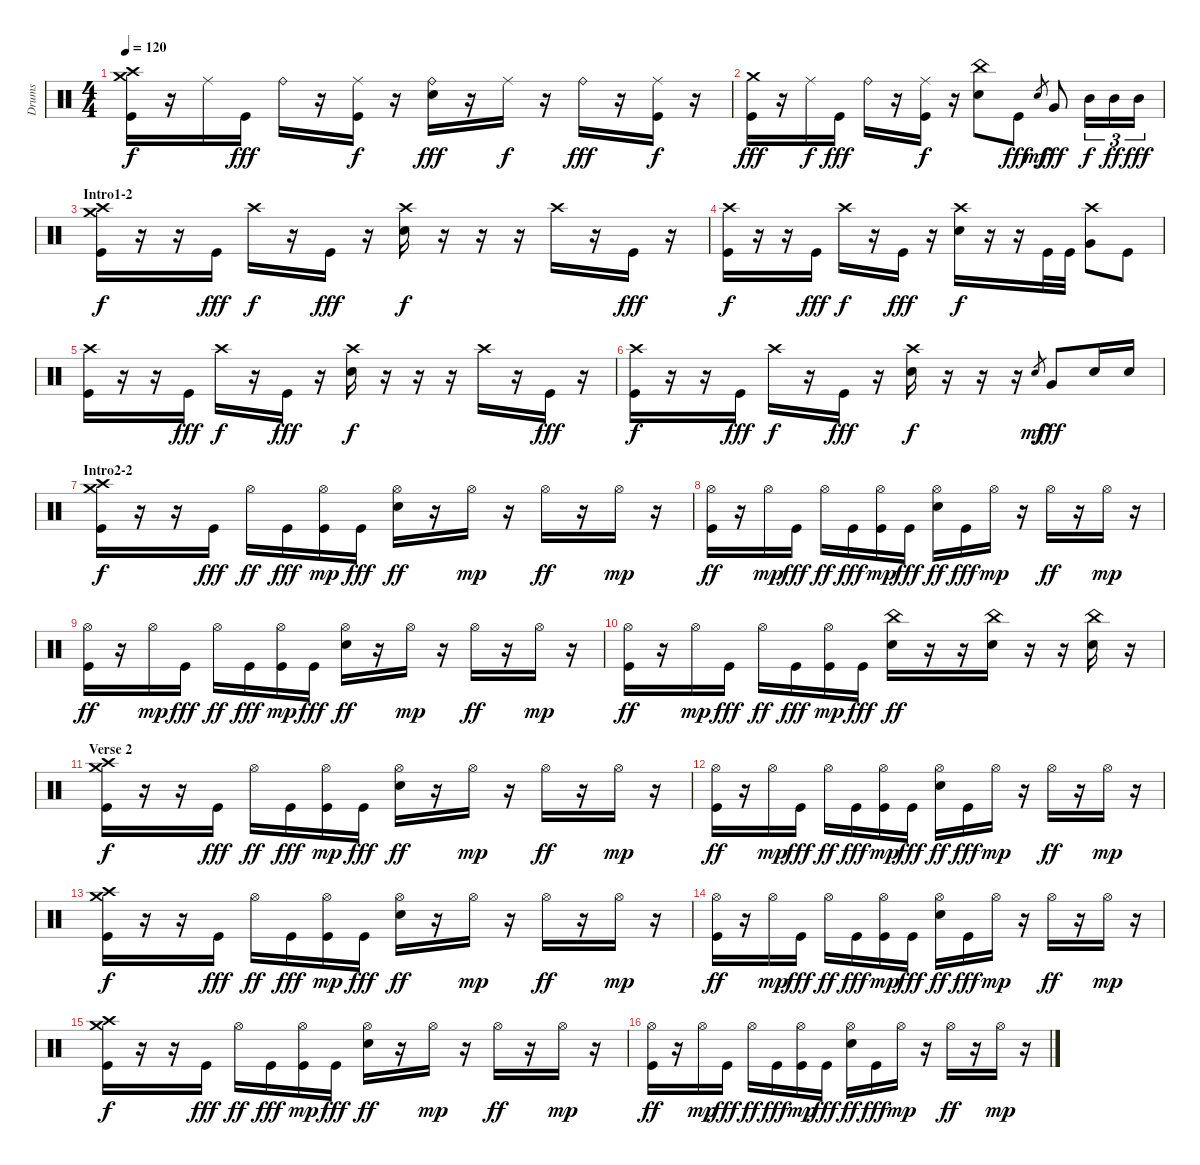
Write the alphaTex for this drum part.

\track ("Drums" "Drums") {instrument percussion}
\staff {score}
\articulation defaults
\ts (4 4)
\tempo 120
\clef neutral
\ks c
("Crash high (hit)" "Crash medium (hit)" "Kick (hit)").16{dy f} r.16 "Ride (middle)".16 "Kick (hit)".16{dy fff} "Ride (bell)".16 r.16 ("Ride (middle)" "Kick (hit)").16{dy f} r.16 ("Ride (bell)" "Snare (hit) 2").16{dy fff} r.16 "Ride (middle)".16{dy f} r.16 "Ride (bell)".16{dy fff} r.16 ("Ride (middle)" "Kick (hit)").16{dy f} r.16 |
("Crash medium (hit)" "Kick (hit)").16{dy fff} r.16 "Ride (middle)".16{dy f} "Kick (hit)".16{dy fff} "Ride (bell)".16 r.16 ("Ride (middle)" "Kick (hit)").16{dy f} r.16 ("China (hit)" "Snare (hit) 2").8 "Kick (hit)".8{dy fff} "Snare (hit)".8{gr dy mf} "Very Low Tom (hit)".8{dy fff} "Mid Tom (hit)".16{tu (3 2) dy f} "Mid Tom (hit)".16{tu (3 2) dy ff} "Mid Tom (hit)".16{tu (3 2) dy fff} |
\section ("" "Intro1-2")
("Crash high (hit)" "Crash medium (hit)" "Kick (hit)").16{dy f} r.16 r.16 "Kick (hit)".16{dy fff} "Crash high (hit)".16{dy f} r.16 "Kick (hit)".16{dy fff} r.16 ("Crash high (hit)" "Snare (hit) 2").16{dy f} r.16 r.16 r.16 "Crash high (hit)".16 r.16 "Kick (hit)".16{dy fff} r.16 |
("Crash high (hit)" "Kick (hit)").16{dy f} r.16 r.16 "Kick (hit)".16{dy fff} "Crash high (hit)".16{dy f} r.16 "Kick (hit)".16{dy fff} r.16 ("Crash high (hit)" "Snare (hit) 2").16{dy f} r.16 r.16 "Kick (hit)".32 "Kick (hit)".32 ("Crash high (hit)" "Very Low Tom (hit)").8 "Kick (hit)".8 |
("Crash high (hit)" "Kick (hit)").16 r.16 r.16 "Kick (hit)".16{dy fff} "Crash high (hit)".16{dy f} r.16 "Kick (hit)".16{dy fff} r.16 ("Crash high (hit)" "Snare (hit) 2").16{dy f} r.16 r.16 r.16 "Crash high (hit)".16 r.16 "Kick (hit)".16{dy fff} r.16 |
("Crash high (hit)" "Kick (hit)").16{dy f} r.16 r.16 "Kick (hit)".16{dy fff} "Crash high (hit)".16{dy f} r.16 "Kick (hit)".16{dy fff} r.16 ("Crash high (hit)" "Snare (hit) 2").16{dy f} r.16 r.16 r.16 "Snare (hit)".8{gr dy mf} "Very Low Tom (hit)".8{dy fff} "Snare (hit) 2".16 "Snare (hit) 2".16 |
\section ("" "Intro2-2")
("Crash high (hit)" "Crash medium (hit)" "Kick (hit)").16{dy f} r.16 r.16 "Kick (hit)".16{dy fff} "Hi-Hat (open)".16{dy ff} "Kick (hit)".16{dy fff} ("Hi-Hat (open)" "Kick (hit)").16{dy mp} "Kick (hit)".16{dy fff} ("Hi-Hat (open)" "Snare (hit) 2").16{dy ff} r.16 "Hi-Hat (open)".16{dy mp} r.16 "Hi-Hat (open)".16{dy ff} r.16 "Hi-Hat (open)".16{dy mp} r.16 |
("Hi-Hat (open)" "Kick (hit)").16{dy ff} r.16 "Hi-Hat (open)".16{dy mp} "Kick (hit)".16{dy fff} "Hi-Hat (open)".16{dy ff} "Kick (hit)".16{dy fff} ("Hi-Hat (open)" "Kick (hit)").16{dy mp} "Kick (hit)".16{dy fff} ("Hi-Hat (open)" "Snare (hit) 2").16{dy ff} "Kick (hit)".16{dy fff} "Hi-Hat (open)".16{dy mp} r.16 "Hi-Hat (open)".16{dy ff} r.16 "Hi-Hat (open)".16{dy mp} r.16 |
("Hi-Hat (open)" "Kick (hit)").16{dy ff} r.16 "Hi-Hat (open)".16{dy mp} "Kick (hit)".16{dy fff} "Hi-Hat (open)".16{dy ff} "Kick (hit)".16{dy fff} ("Hi-Hat (open)" "Kick (hit)").16{dy mp} "Kick (hit)".16{dy fff} ("Hi-Hat (open)" "Snare (hit) 2").16{dy ff} r.16 "Hi-Hat (open)".16{dy mp} r.16 "Hi-Hat (open)".16{dy ff} r.16 "Hi-Hat (open)".16{dy mp} r.16 |
("Hi-Hat (open)" "Kick (hit)").16{dy ff} r.16 "Hi-Hat (open)".16{dy mp} "Kick (hit)".16{dy fff} "Hi-Hat (open)".16{dy ff} "Kick (hit)".16{dy fff} ("Hi-Hat (open)" "Kick (hit)").16{dy mp} "Kick (hit)".16{dy fff} ("China (hit)" "Snare (hit) 2").16{dy ff} r.16 r.16 ("China (hit)" "Snare (hit) 2").16 r.16 r.16 ("China (hit)" "Snare (hit) 2").16 r.16 |
\section ("" "Verse 2")
("Crash high (hit)" "Crash medium (hit)" "Kick (hit)").16{dy f} r.16 r.16 "Kick (hit)".16{dy fff} "Hi-Hat (open)".16{dy ff} "Kick (hit)".16{dy fff} ("Hi-Hat (open)" "Kick (hit)").16{dy mp} "Kick (hit)".16{dy fff} ("Hi-Hat (open)" "Snare (hit) 2").16{dy ff} r.16 "Hi-Hat (open)".16{dy mp} r.16 "Hi-Hat (open)".16{dy ff} r.16 "Hi-Hat (open)".16{dy mp} r.16 |
("Hi-Hat (open)" "Kick (hit)").16{dy ff} r.16 "Hi-Hat (open)".16{dy mp} "Kick (hit)".16{dy fff} "Hi-Hat (open)".16{dy ff} "Kick (hit)".16{dy fff} ("Hi-Hat (open)" "Kick (hit)").16{dy mp} "Kick (hit)".16{dy fff} ("Hi-Hat (open)" "Snare (hit) 2").16{dy ff} "Kick (hit)".16{dy fff} "Hi-Hat (open)".16{dy mp} r.16 "Hi-Hat (open)".16{dy ff} r.16 "Hi-Hat (open)".16{dy mp} r.16 |
("Crash high (hit)" "Crash medium (hit)" "Kick (hit)").16{dy f} r.16 r.16 "Kick (hit)".16{dy fff} "Hi-Hat (open)".16{dy ff} "Kick (hit)".16{dy fff} ("Hi-Hat (open)" "Kick (hit)").16{dy mp} "Kick (hit)".16{dy fff} ("Hi-Hat (open)" "Snare (hit) 2").16{dy ff} r.16 "Hi-Hat (open)".16{dy mp} r.16 "Hi-Hat (open)".16{dy ff} r.16 "Hi-Hat (open)".16{dy mp} r.16 |
("Hi-Hat (open)" "Kick (hit)").16{dy ff} r.16 "Hi-Hat (open)".16{dy mp} "Kick (hit)".16{dy fff} "Hi-Hat (open)".16{dy ff} "Kick (hit)".16{dy fff} ("Hi-Hat (open)" "Kick (hit)").16{dy mp} "Kick (hit)".16{dy fff} ("Hi-Hat (open)" "Snare (hit) 2").16{dy ff} "Kick (hit)".16{dy fff} "Hi-Hat (open)".16{dy mp} r.16 "Hi-Hat (open)".16{dy ff} r.16 "Hi-Hat (open)".16{dy mp} r.16 |
("Crash high (hit)" "Crash medium (hit)" "Kick (hit)").16{dy f} r.16 r.16 "Kick (hit)".16{dy fff} "Hi-Hat (open)".16{dy ff} "Kick (hit)".16{dy fff} ("Hi-Hat (open)" "Kick (hit)").16{dy mp} "Kick (hit)".16{dy fff} ("Hi-Hat (open)" "Snare (hit) 2").16{dy ff} r.16 "Hi-Hat (open)".16{dy mp} r.16 "Hi-Hat (open)".16{dy ff} r.16 "Hi-Hat (open)".16{dy mp} r.16 |
("Hi-Hat (open)" "Kick (hit)").16{dy ff} r.16 "Hi-Hat (open)".16{dy mp} "Kick (hit)".16{dy fff} "Hi-Hat (open)".16{dy ff} "Kick (hit)".16{dy fff} ("Hi-Hat (open)" "Kick (hit)").16{dy mp} "Kick (hit)".16{dy fff} ("Hi-Hat (open)" "Snare (hit) 2").16{dy ff} "Kick (hit)".16{dy fff} "Hi-Hat (open)".16{dy mp} r.16 "Hi-Hat (open)".16{dy ff} r.16 "Hi-Hat (open)".16{dy mp} r.16
